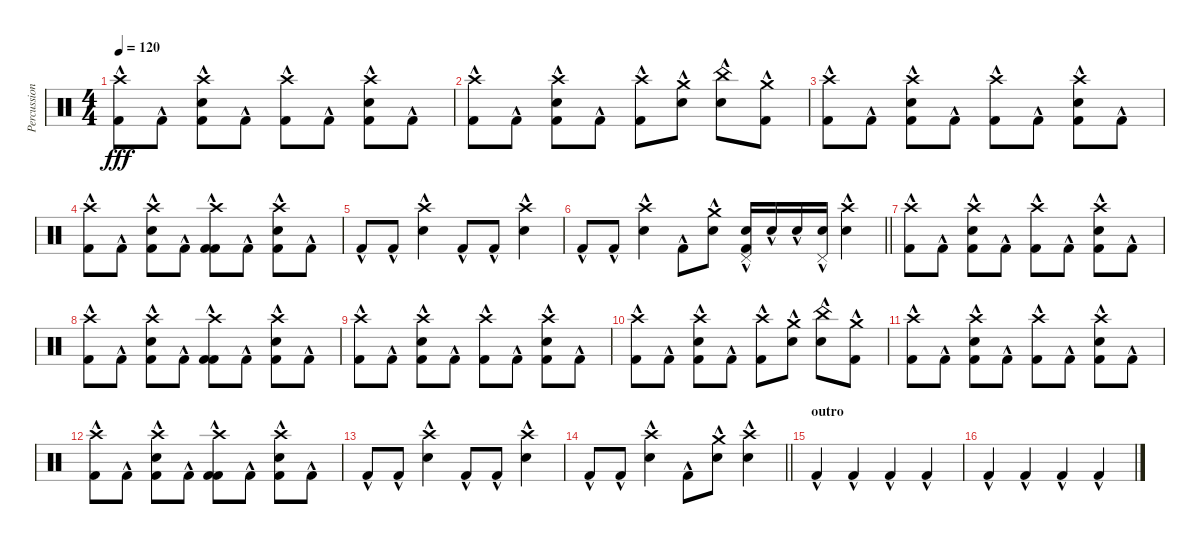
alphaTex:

\track ("Percussion" "Percussion") {instrument percussion}
\staff {score}
\articulation defaults
\ts (4 4)
\tempo 120
\clef neutral
\ks c
("Crash high (hit)"{hac} "Kick (hit) 2"{hac}).8{dy fff} "Kick (hit) 2"{hac}.8 ("Crash high (hit)"{hac} "Electric Snare (hit)"{hac} "Kick (hit) 2"{hac}).8 "Kick (hit) 2"{hac}.8 ("Crash high (hit)"{hac} "Kick (hit) 2"{hac}).8 "Kick (hit) 2"{hac}.8 ("Crash high (hit)"{hac} "Electric Snare (hit)"{hac} "Kick (hit) 2"{hac}).8 "Kick (hit) 2"{hac}.8 |
("Crash high (hit)"{hac} "Kick (hit) 2"{hac}).8 "Kick (hit) 2"{hac}.8 ("Crash high (hit)"{hac} "Electric Snare (hit)"{hac} "Kick (hit) 2"{hac}).8 "Kick (hit) 2"{hac}.8 ("Crash high (hit)"{hac} "Kick (hit) 2"{hac}).8 ("Crash medium (hit)"{hac} "Electric Snare (hit)"{hac}).8 ("China (hit)"{hac} "Electric Snare (hit)"{hac}).8 ("Crash medium (hit)"{hac} "Kick (hit) 2"{hac}).8 |
("Crash high (hit)"{hac} "Kick (hit) 2"{hac}).8 "Kick (hit) 2"{hac}.8 ("Crash high (hit)"{hac} "Electric Snare (hit)"{hac} "Kick (hit) 2"{hac}).8 "Kick (hit) 2"{hac}.8 ("Crash high (hit)"{hac} "Kick (hit) 2"{hac}).8 "Kick (hit) 2"{hac}.8 ("Crash high (hit)"{hac} "Electric Snare (hit)"{hac} "Kick (hit) 2"{hac}).8 "Kick (hit) 2"{hac}.8 |
("Crash high (hit)"{hac} "Kick (hit) 2"{hac}).8 "Kick (hit) 2"{hac}.8 ("Crash high (hit)"{hac} "Electric Snare (hit)"{hac} "Kick (hit) 2"{hac}).8 "Kick (hit) 2"{hac}.8 ("Crash high (hit)"{hac} "Kick (hit) 2" "Kick (hit) 2"{hac}).8 "Kick (hit) 2"{hac}.8 ("Crash high (hit)"{hac} "Electric Snare (hit)"{hac} "Kick (hit) 2"{hac}).8 "Kick (hit) 2"{hac}.8 |
"Kick (hit) 2"{hac}.8 "Kick (hit) 2"{hac}.8 ("Crash high (hit)"{hac} "Electric Snare (hit)"{hac}).4 "Kick (hit) 2"{hac}.8 "Kick (hit) 2"{hac}.8 ("Crash high (hit)"{hac} "Electric Snare (hit)"{hac}).4 |
\barLineRight lightlight "Kick (hit) 2"{hac}.8 "Kick (hit) 2"{hac}.8
("Crash high (hit)"{hac} "Electric Snare (hit)"{hac}).4 "Kick (hit) 2"{hac}.8 ("Crash medium (hit)"{hac} "Electric Snare (hit)"{hac}).8 ("Pedal Hi-Hat (hit)" "Kick (hit) 2"{hac} "Electric Snare (hit)"{hac}).16 "Electric Snare (hit)"{hac}.16 "Electric Snare (hit)"{hac}.16 ("Pedal Hi-Hat (hit)" "Electric Snare (hit)"{hac}).16 ("Crash high (hit)"{hac} "Electric Snare (hit)"{hac}).4 |
("Crash high (hit)"{hac} "Kick (hit) 2"{hac}).8 "Kick (hit) 2"{hac}.8 ("Crash high (hit)"{hac} "Electric Snare (hit)"{hac} "Kick (hit) 2"{hac}).8 "Kick (hit) 2"{hac}.8 ("Crash high (hit)"{hac} "Kick (hit) 2"{hac}).8 "Kick (hit) 2"{hac}.8 ("Crash high (hit)"{hac} "Electric Snare (hit)"{hac} "Kick (hit) 2"{hac}).8 "Kick (hit) 2"{hac}.8 |
("Crash high (hit)"{hac} "Kick (hit) 2"{hac}).8 "Kick (hit) 2"{hac}.8 ("Crash high (hit)"{hac} "Electric Snare (hit)"{hac} "Kick (hit) 2"{hac}).8 "Kick (hit) 2"{hac}.8 ("Crash high (hit)"{hac} "Kick (hit) 2" "Kick (hit) 2"{hac}).8 "Kick (hit) 2"{hac}.8 ("Crash high (hit)"{hac} "Electric Snare (hit)"{hac} "Kick (hit) 2"{hac}).8 "Kick (hit) 2"{hac}.8 |
("Crash high (hit)"{hac} "Kick (hit) 2"{hac}).8 "Kick (hit) 2"{hac}.8 ("Crash high (hit)"{hac} "Electric Snare (hit)"{hac} "Kick (hit) 2"{hac}).8 "Kick (hit) 2"{hac}.8 ("Crash high (hit)"{hac} "Kick (hit) 2"{hac}).8 "Kick (hit) 2"{hac}.8 ("Crash high (hit)"{hac} "Electric Snare (hit)"{hac} "Kick (hit) 2"{hac}).8 "Kick (hit) 2"{hac}.8 |
("Crash high (hit)"{hac} "Kick (hit) 2"{hac}).8 "Kick (hit) 2"{hac}.8 ("Crash high (hit)"{hac} "Electric Snare (hit)"{hac} "Kick (hit) 2"{hac}).8 "Kick (hit) 2"{hac}.8 ("Crash high (hit)"{hac} "Kick (hit) 2"{hac}).8 ("Crash medium (hit)"{hac} "Electric Snare (hit)"{hac}).8 ("China (hit)"{hac} "Electric Snare (hit)"{hac}).8 ("Crash medium (hit)"{hac} "Kick (hit) 2"{hac}).8 |
("Crash high (hit)"{hac} "Kick (hit) 2"{hac}).8 "Kick (hit) 2"{hac}.8 ("Crash high (hit)"{hac} "Electric Snare (hit)"{hac} "Kick (hit) 2"{hac}).8 "Kick (hit) 2"{hac}.8 ("Crash high (hit)"{hac} "Kick (hit) 2"{hac}).8 "Kick (hit) 2"{hac}.8 ("Crash high (hit)"{hac} "Electric Snare (hit)"{hac} "Kick (hit) 2"{hac}).8 "Kick (hit) 2"{hac}.8 |
("Crash high (hit)"{hac} "Kick (hit) 2"{hac}).8 "Kick (hit) 2"{hac}.8 ("Crash high (hit)"{hac} "Electric Snare (hit)"{hac} "Kick (hit) 2"{hac}).8 "Kick (hit) 2"{hac}.8 ("Crash high (hit)"{hac} "Kick (hit) 2" "Kick (hit) 2"{hac}).8 "Kick (hit) 2"{hac}.8 ("Crash high (hit)"{hac} "Electric Snare (hit)"{hac} "Kick (hit) 2"{hac}).8 "Kick (hit) 2"{hac}.8 |
"Kick (hit) 2"{hac}.8 "Kick (hit) 2"{hac}.8 ("Crash high (hit)"{hac} "Electric Snare (hit)"{hac}).4 "Kick (hit) 2"{hac}.8 "Kick (hit) 2"{hac}.8 ("Crash high (hit)"{hac} "Electric Snare (hit)"{hac}).4 |
\barLineRight lightlight "Kick (hit) 2"{hac}.8 "Kick (hit) 2"{hac}.8
("Crash high (hit)"{hac} "Electric Snare (hit)"{hac}).4 "Kick (hit) 2"{hac}.8 ("Crash medium (hit)"{hac} "Electric Snare (hit)"{hac}).8 ("Crash high (hit)"{hac} "Electric Snare (hit)"{hac}).4 |
\section ("" "outro")
"Kick (hit) 2"{hac}.4 "Kick (hit) 2"{hac}.4 "Kick (hit) 2"{hac}.4 "Kick (hit) 2"{hac}.4 |
"Kick (hit) 2"{hac}.4 "Kick (hit) 2"{hac}.4 "Kick (hit) 2"{hac}.4 "Kick (hit) 2"{hac}.4
